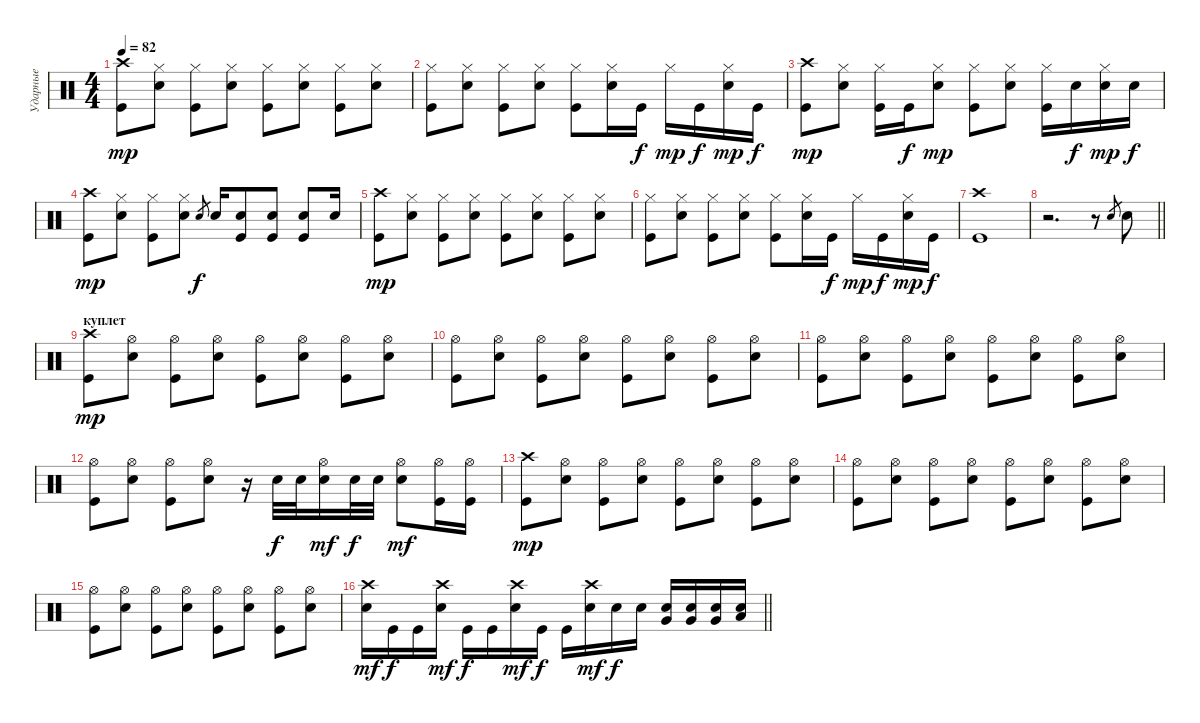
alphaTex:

\track ("Ударные" "Ударные") {instrument percussion}
\staff {score}
\articulation defaults
\ts (4 4)
\tempo 82
\clef neutral
\ks c
("Kick (hit)" "Crash high (hit)").8{dy mp} ("Snare (hit) 2" "Hi-Hat (closed)").8 ("Kick (hit)" "Hi-Hat (closed)").8 ("Snare (hit) 2" "Hi-Hat (closed)").8 ("Kick (hit)" "Hi-Hat (closed)").8 ("Snare (hit) 2" "Hi-Hat (closed)").8 ("Kick (hit)" "Hi-Hat (closed)").8 ("Snare (hit) 2" "Hi-Hat (closed)").8 |
("Kick (hit)" "Hi-Hat (closed)").8 ("Snare (hit) 2" "Hi-Hat (closed)").8 ("Kick (hit)" "Hi-Hat (closed)").8 ("Snare (hit) 2" "Hi-Hat (closed)").8 ("Kick (hit)" "Hi-Hat (closed)").8 ("Snare (hit) 2" "Hi-Hat (closed)").16 "Kick (hit)".16{dy f} "Hi-Hat (closed)".16{dy mp} "Kick (hit)".16{dy f} ("Snare (hit) 2" "Hi-Hat (closed)").16{dy mp} "Kick (hit)".16{dy f} |
("Kick (hit)" "Crash high (hit)").8{dy mp} ("Snare (hit) 2" "Hi-Hat (closed)").8 ("Kick (hit)" "Hi-Hat (closed)").16 "Kick (hit)".16{dy f} ("Snare (hit) 2" "Hi-Hat (closed)").8{dy mp} ("Kick (hit)" "Hi-Hat (closed)").8 ("Snare (hit) 2" "Hi-Hat (closed)").8 ("Kick (hit)" "Hi-Hat (closed)").16 "Snare (hit) 2".16{dy f} ("Snare (hit) 2" "Hi-Hat (closed)").16{dy mp} "Snare (hit) 2".16{dy f} |
("Kick (hit)" "Crash high (hit)").8{dy mp} ("Snare (hit) 2" "Hi-Hat (closed)").8 ("Kick (hit)" "Hi-Hat (closed)").8 ("Snare (hit) 2" "Hi-Hat (closed)").8 "Snare (hit) 2".8{gr dy f} "Snare (hit) 2".16 ("Kick (hit)" "Snare (hit) 2").8 ("Kick (hit)" "Snare (hit) 2").8 ("Kick (hit)" "Snare (hit) 2").8 "Snare (hit) 2".16 |
("Kick (hit)" "Crash high (hit)").8{dy mp} ("Snare (hit) 2" "Hi-Hat (closed)").8 ("Kick (hit)" "Hi-Hat (closed)").8 ("Snare (hit) 2" "Hi-Hat (closed)").8 ("Kick (hit)" "Hi-Hat (closed)").8 ("Snare (hit) 2" "Hi-Hat (closed)").8 ("Kick (hit)" "Hi-Hat (closed)").8 ("Snare (hit) 2" "Hi-Hat (closed)").8 |
("Kick (hit)" "Hi-Hat (closed)").8 ("Snare (hit) 2" "Hi-Hat (closed)").8 ("Kick (hit)" "Hi-Hat (closed)").8 ("Snare (hit) 2" "Hi-Hat (closed)").8 ("Kick (hit)" "Hi-Hat (closed)").8 ("Snare (hit) 2" "Hi-Hat (closed)").16 "Kick (hit)".16{dy f} "Hi-Hat (closed)".16{dy mp} "Kick (hit)".16{dy f} ("Snare (hit) 2" "Hi-Hat (closed)").16{dy mp} "Kick (hit)".16{dy f} |
("Kick (hit)" "Crash high (hit)").1 |
\barLineRight lightlight
r.2{d} r.8 "Snare (hit) 2".8{gr} "Snare (hit) 2".8 |
\section ("" "куплет")
("Kick (hit)" "Crash high (hit)").8{dy mp} ("Snare (hit) 2" "Hi-Hat (open)").8 ("Kick (hit)" "Hi-Hat (open)").8 ("Snare (hit) 2" "Hi-Hat (open)").8 ("Kick (hit)" "Hi-Hat (open)").8 ("Snare (hit) 2" "Hi-Hat (open)").8 ("Kick (hit)" "Hi-Hat (open)").8 ("Snare (hit) 2" "Hi-Hat (open)").8 |
("Kick (hit)" "Hi-Hat (open)").8 ("Snare (hit) 2" "Hi-Hat (open)").8 ("Kick (hit)" "Hi-Hat (open)").8 ("Snare (hit) 2" "Hi-Hat (open)").8 ("Kick (hit)" "Hi-Hat (open)").8 ("Snare (hit) 2" "Hi-Hat (open)").8 ("Kick (hit)" "Hi-Hat (open)").8 ("Snare (hit) 2" "Hi-Hat (open)").8 |
("Kick (hit)" "Hi-Hat (open)").8 ("Snare (hit) 2" "Hi-Hat (open)").8 ("Kick (hit)" "Hi-Hat (open)").8 ("Snare (hit) 2" "Hi-Hat (open)").8 ("Kick (hit)" "Hi-Hat (open)").8 ("Snare (hit) 2" "Hi-Hat (open)").8 ("Kick (hit)" "Hi-Hat (open)").8 ("Snare (hit) 2" "Hi-Hat (open)").8 |
("Kick (hit)" "Hi-Hat (open)").8 ("Snare (hit) 2" "Hi-Hat (open)").8 ("Kick (hit)" "Hi-Hat (open)").8 ("Snare (hit) 2" "Hi-Hat (open)").8 r.16 "Snare (hit) 2".32{dy f} "Snare (hit) 2".32 ("Snare (hit) 2" "Hi-Hat (open)").16{dy mf} "Snare (hit) 2".32{dy f} "Snare (hit) 2".32 ("Snare (hit) 2" "Hi-Hat (open)").8{dy mf} ("Kick (hit)" "Hi-Hat (open)").16 ("Kick (hit)" "Hi-Hat (open)").16 |
("Kick (hit)" "Crash high (hit)").8{dy mp} ("Snare (hit) 2" "Hi-Hat (open)").8 ("Kick (hit)" "Hi-Hat (open)").8 ("Snare (hit) 2" "Hi-Hat (open)").8 ("Kick (hit)" "Hi-Hat (open)").8 ("Snare (hit) 2" "Hi-Hat (open)").8 ("Kick (hit)" "Hi-Hat (open)").8 ("Snare (hit) 2" "Hi-Hat (open)").8 |
("Kick (hit)" "Hi-Hat (open)").8 ("Snare (hit) 2" "Hi-Hat (open)").8 ("Kick (hit)" "Hi-Hat (open)").8 ("Snare (hit) 2" "Hi-Hat (open)").8 ("Kick (hit)" "Hi-Hat (open)").8 ("Snare (hit) 2" "Hi-Hat (open)").8 ("Kick (hit)" "Hi-Hat (open)").8 ("Snare (hit) 2" "Hi-Hat (open)").8 |
("Kick (hit)" "Hi-Hat (open)").8 ("Snare (hit) 2" "Hi-Hat (open)").8 ("Kick (hit)" "Hi-Hat (open)").8 ("Snare (hit) 2" "Hi-Hat (open)").8 ("Kick (hit)" "Hi-Hat (open)").8 ("Snare (hit) 2" "Hi-Hat (open)").8 ("Kick (hit)" "Hi-Hat (open)").8 ("Snare (hit) 2" "Hi-Hat (open)").8 |
\barLineRight lightlight
("Snare (hit) 2" "Crash high (hit)").16{dy mf} "Kick (hit)".16{dy f} "Kick (hit)".16 ("Snare (hit) 2" "Crash high (hit)").16{dy mf} "Kick (hit)".16{dy f} "Kick (hit)".16 ("Snare (hit) 2" "Crash high (hit)").16{dy mf} "Kick (hit)".16{dy f} "Kick (hit)".16 ("Snare (hit) 2" "Crash high (hit)").16{dy mf} "Snare (hit) 2".16{dy f} "Snare (hit) 2".16 ("Snare (hit) 2" "Very Low Tom (hit)").16 ("Snare (hit) 2" "Very Low Tom (hit)").16 ("Snare (hit) 2" "Very Low Tom (hit)").16 ("Snare (hit) 2" "Low Floor Tom (hit)").16
